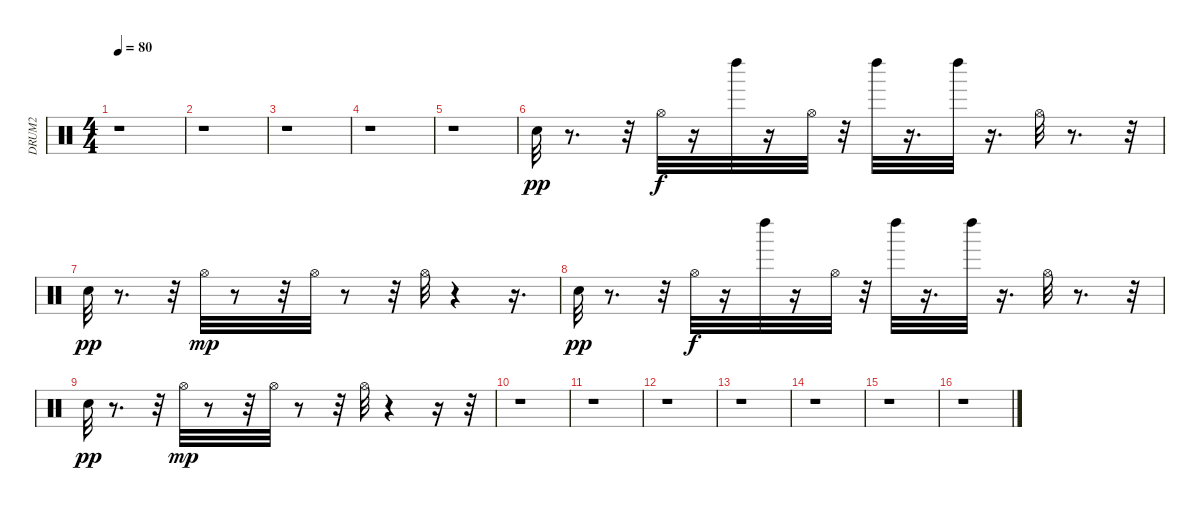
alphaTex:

\track ("DRUM2" "DRUM2") {instrument percussion}
\staff {score}
\articulation defaults
\ts (4 4)
\tempo 80
\clef neutral
\ks c
r.1{dy f} |
r.1 |
r.1 |
r.1 |
r.1 |
"Snare (hit) 2".32{dy pp} r.8{d} r.32 "Hi-Hat (open)".32{dy f} r.16 "Left Maraca (hit)".32 r.16 "Hi-Hat (open)".32 r.32 "Left Maraca (hit)".32 r.16{d} "Left Maraca (hit)".32 r.16{d} "Hi-Hat (open)".32 r.8{d} r.32 |
"Snare (hit) 2".32{dy pp} r.8{d} r.32 "Hi-Hat (open)".32{dy mp} r.8 r.32 "Hi-Hat (open)".32 r.8 r.32 "Hi-Hat (open)".32 r.4 r.16{d} |
"Snare (hit) 2".32{dy pp} r.8{d} r.32 "Hi-Hat (open)".32{dy f} r.16 "Left Maraca (hit)".32 r.16 "Hi-Hat (open)".32 r.32 "Left Maraca (hit)".32 r.16{d} "Left Maraca (hit)".32 r.16{d} "Hi-Hat (open)".32 r.8{d} r.32 |
"Snare (hit) 2".32{dy pp} r.8{d} r.32 "Hi-Hat (open)".32{dy mp} r.8 r.32 "Hi-Hat (open)".32 r.8 r.32 "Hi-Hat (open)".32 r.4 r.16 r.32 |
r.1 |
r.1 |
r.1 |
r.1 |
r.1 |
r.1 |
r.1
